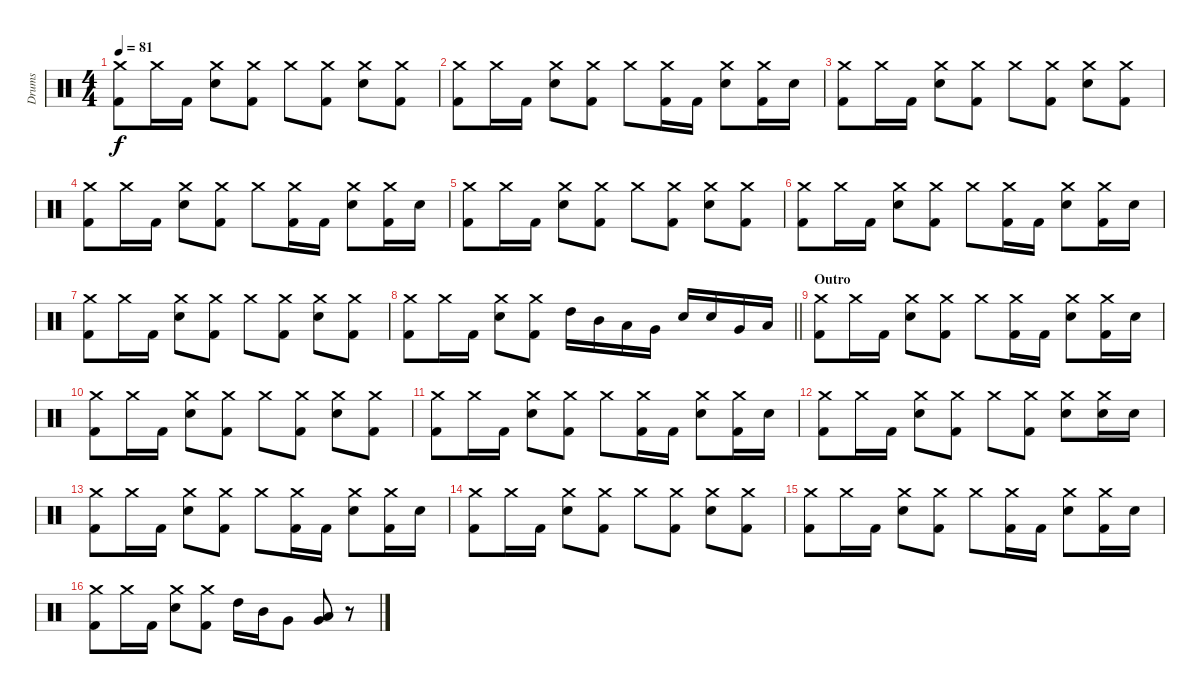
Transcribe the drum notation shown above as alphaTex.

\track ("Drums" "Drums") {instrument percussion}
\staff {score}
\articulation defaults
\ts (4 4)
\tempo 81
\clef neutral
\ks c
("Kick (hit) 2" "Crash medium (hit)").8{dy f} "Crash medium (hit)".16 "Kick (hit) 2".16 ("Electric Snare (hit)" "Crash medium (hit)").8 ("Kick (hit) 2" "Crash medium (hit)").8 "Crash medium (hit)".8 ("Kick (hit) 2" "Crash medium (hit)").8 ("Electric Snare (hit)" "Crash medium (hit)").8 ("Kick (hit) 2" "Crash medium (hit)").8 |
("Kick (hit) 2" "Crash medium (hit)").8 "Crash medium (hit)".16 "Kick (hit) 2".16 ("Electric Snare (hit)" "Crash medium (hit)").8 ("Kick (hit) 2" "Crash medium (hit)").8 "Crash medium (hit)".8 ("Kick (hit) 2" "Crash medium (hit)").16 "Kick (hit) 2".16 ("Electric Snare (hit)" "Crash medium (hit)").8 ("Kick (hit) 2" "Crash medium (hit)").16 "Electric Snare (hit)".16 |
("Kick (hit) 2" "Crash medium (hit)").8 "Crash medium (hit)".16 "Kick (hit) 2".16 ("Electric Snare (hit)" "Crash medium (hit)").8 ("Kick (hit) 2" "Crash medium (hit)").8 "Crash medium (hit)".8 ("Kick (hit) 2" "Crash medium (hit)").8 ("Electric Snare (hit)" "Crash medium (hit)").8 ("Kick (hit) 2" "Crash medium (hit)").8 |
("Kick (hit) 2" "Crash medium (hit)").8 "Crash medium (hit)".16 "Kick (hit) 2".16 ("Electric Snare (hit)" "Crash medium (hit)").8 ("Kick (hit) 2" "Crash medium (hit)").8 "Crash medium (hit)".8 ("Kick (hit) 2" "Crash medium (hit)").16 "Kick (hit) 2".16 ("Electric Snare (hit)" "Crash medium (hit)").8 ("Kick (hit) 2" "Crash medium (hit)").16 "Electric Snare (hit)".16 |
("Kick (hit) 2" "Crash medium (hit)").8 "Crash medium (hit)".16 "Kick (hit) 2".16 ("Electric Snare (hit)" "Crash medium (hit)").8 ("Kick (hit) 2" "Crash medium (hit)").8 "Crash medium (hit)".8 ("Kick (hit) 2" "Crash medium (hit)").8 ("Electric Snare (hit)" "Crash medium (hit)").8 ("Kick (hit) 2" "Crash medium (hit)").8 |
("Kick (hit) 2" "Crash medium (hit)").8 "Crash medium (hit)".16 "Kick (hit) 2".16 ("Electric Snare (hit)" "Crash medium (hit)").8 ("Kick (hit) 2" "Crash medium (hit)").8 "Crash medium (hit)".8 ("Kick (hit) 2" "Crash medium (hit)").16 "Kick (hit) 2".16 ("Electric Snare (hit)" "Crash medium (hit)").8 ("Kick (hit) 2" "Crash medium (hit)").16 "Electric Snare (hit)".16 |
("Kick (hit) 2" "Crash medium (hit)").8 "Crash medium (hit)".16 "Kick (hit) 2".16 ("Electric Snare (hit)" "Crash medium (hit)").8 ("Kick (hit) 2" "Crash medium (hit)").8 "Crash medium (hit)".8 ("Kick (hit) 2" "Crash medium (hit)").8 ("Electric Snare (hit)" "Crash medium (hit)").8 ("Kick (hit) 2" "Crash medium (hit)").8 |
\barLineRight lightlight
("Kick (hit) 2" "Crash medium (hit)").8 "Crash medium (hit)".16 "Kick (hit) 2".16 ("Electric Snare (hit)" "Crash medium (hit)").8 ("Kick (hit) 2" "Crash medium (hit)").8 "High Tom (hit)".16 "Mid Tom (hit)".16 "Low Tom (hit)".16 "Very Low Tom (hit)".16 "Electric Snare (hit)".16 "Electric Snare (hit)".16 "Very Low Tom (hit)".16 "Low Floor Tom (hit)".16 |
\section ("" "Outro")
("Kick (hit) 2" "Crash medium (hit)").8 "Crash medium (hit)".16 "Kick (hit) 2".16 ("Electric Snare (hit)" "Crash medium (hit)").8 ("Kick (hit) 2" "Crash medium (hit)").8 "Crash medium (hit)".8 ("Kick (hit) 2" "Crash medium (hit)").16 "Kick (hit) 2".16 ("Electric Snare (hit)" "Crash medium (hit)").8 ("Kick (hit) 2" "Crash medium (hit)").16 "Electric Snare (hit)".16 |
("Kick (hit) 2" "Crash medium (hit)").8 "Crash medium (hit)".16 "Kick (hit) 2".16 ("Electric Snare (hit)" "Crash medium (hit)").8 ("Kick (hit) 2" "Crash medium (hit)").8 "Crash medium (hit)".8 ("Kick (hit) 2" "Crash medium (hit)").8 ("Electric Snare (hit)" "Crash medium (hit)").8 ("Kick (hit) 2" "Crash medium (hit)").8 |
("Kick (hit) 2" "Crash medium (hit)").8 "Crash medium (hit)".16 "Kick (hit) 2".16 ("Electric Snare (hit)" "Crash medium (hit)").8 ("Kick (hit) 2" "Crash medium (hit)").8 "Crash medium (hit)".8 ("Kick (hit) 2" "Crash medium (hit)").16 "Kick (hit) 2".16 ("Electric Snare (hit)" "Crash medium (hit)").8 ("Kick (hit) 2" "Crash medium (hit)").16 "Electric Snare (hit)".16 |
("Kick (hit) 2" "Crash medium (hit)").8 "Crash medium (hit)".16 "Kick (hit) 2".16 ("Electric Snare (hit)" "Crash medium (hit)").8 ("Kick (hit) 2" "Crash medium (hit)").8 "Crash medium (hit)".8 ("Kick (hit) 2" "Crash medium (hit)").8 ("Electric Snare (hit)" "Crash medium (hit)").8 ("Electric Snare (hit)" "Crash medium (hit)").16 "Electric Snare (hit)".16 |
("Kick (hit) 2" "Crash medium (hit)").8 "Crash medium (hit)".16 "Kick (hit) 2".16 ("Electric Snare (hit)" "Crash medium (hit)").8 ("Kick (hit) 2" "Crash medium (hit)").8 "Crash medium (hit)".8 ("Kick (hit) 2" "Crash medium (hit)").16 "Kick (hit) 2".16 ("Electric Snare (hit)" "Crash medium (hit)").8 ("Kick (hit) 2" "Crash medium (hit)").16 "Electric Snare (hit)".16 |
("Kick (hit) 2" "Crash medium (hit)").8 "Crash medium (hit)".16 "Kick (hit) 2".16 ("Electric Snare (hit)" "Crash medium (hit)").8 ("Kick (hit) 2" "Crash medium (hit)").8 "Crash medium (hit)".8 ("Kick (hit) 2" "Crash medium (hit)").8 ("Electric Snare (hit)" "Crash medium (hit)").8 ("Kick (hit) 2" "Crash medium (hit)").8 |
("Kick (hit) 2" "Crash medium (hit)").8 "Crash medium (hit)".16 "Kick (hit) 2".16 ("Electric Snare (hit)" "Crash medium (hit)").8 ("Kick (hit) 2" "Crash medium (hit)").8 "Crash medium (hit)".8 ("Kick (hit) 2" "Crash medium (hit)").16 "Kick (hit) 2".16 ("Electric Snare (hit)" "Crash medium (hit)").8 ("Kick (hit) 2" "Crash medium (hit)").16 "Electric Snare (hit)".16 |
("Kick (hit) 2" "Crash medium (hit)").8 "Crash medium (hit)".16 "Kick (hit) 2".16 ("Electric Snare (hit)" "Crash medium (hit)").8 ("Kick (hit) 2" "Crash medium (hit)").8 "High Tom (hit)".16 "Mid Tom (hit)".16 "Very Low Tom (hit)".8 ("Low Floor Tom (hit)" "Very Low Tom (hit)").8 r.8
